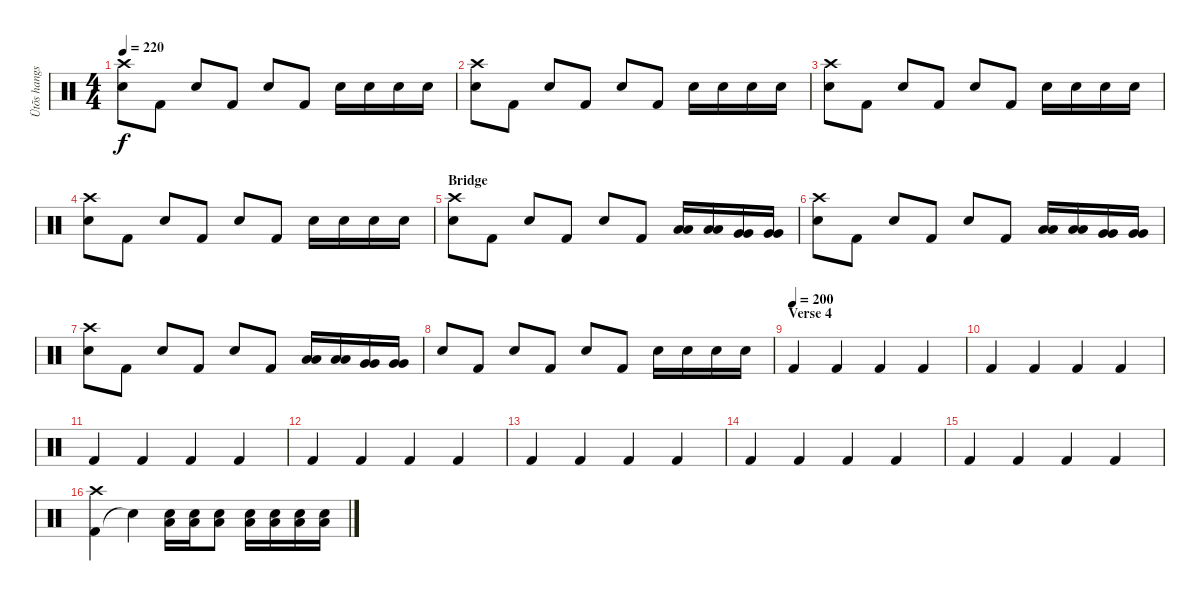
\track ("Ütõs hangszer" "Ütõs hangs") {instrument percussion}
\staff {score}
\articulation defaults
\ts (4 4)
\tempo 220
\clef neutral
\ks c
("Snare (hit) 2" "Crash high (hit)").8{dy f} "Kick (hit) 2".8 "Snare (hit) 2".8 "Kick (hit) 2".8 "Snare (hit) 2".8 "Kick (hit) 2".8 "Snare (hit) 2".16 "Snare (hit) 2".16 "Snare (hit) 2".16 "Snare (hit) 2".16 |
("Snare (hit) 2" "Crash high (hit)").8 "Kick (hit) 2".8 "Snare (hit) 2".8 "Kick (hit) 2".8 "Snare (hit) 2".8 "Kick (hit) 2".8 "Snare (hit) 2".16 "Snare (hit) 2".16 "Snare (hit) 2".16 "Snare (hit) 2".16 |
("Snare (hit) 2" "Crash high (hit)").8 "Kick (hit) 2".8 "Snare (hit) 2".8 "Kick (hit) 2".8 "Snare (hit) 2".8 "Kick (hit) 2".8 "Snare (hit) 2".16 "Snare (hit) 2".16 "Snare (hit) 2".16 "Snare (hit) 2".16 |
("Snare (hit) 2" "Crash high (hit)").8 "Kick (hit) 2".8 "Snare (hit) 2".8 "Kick (hit) 2".8 "Snare (hit) 2".8 "Kick (hit) 2".8 "Snare (hit) 2".16 "Snare (hit) 2".16 "Snare (hit) 2".16 "Snare (hit) 2".16 |
\section ("" "Bridge")
("Snare (hit) 2" "Crash high (hit)").8 "Kick (hit) 2".8 "Snare (hit) 2".8 "Kick (hit) 2".8 "Snare (hit) 2".8 "Kick (hit) 2".8 ("Low Floor Tom (hit)" "Low Floor Tom (hit)").16 ("Low Floor Tom (hit)" "Low Floor Tom (hit)").16 ("Very Low Tom (hit)" "Very Low Tom (hit)").16 ("Very Low Tom (hit)" "Very Low Tom (hit)").16 |
("Snare (hit) 2" "Crash high (hit)").8 "Kick (hit) 2".8 "Snare (hit) 2".8 "Kick (hit) 2".8 "Snare (hit) 2".8 "Kick (hit) 2".8 ("Low Floor Tom (hit)" "Low Floor Tom (hit)").16 ("Low Floor Tom (hit)" "Low Floor Tom (hit)").16 ("Very Low Tom (hit)" "Very Low Tom (hit)").16 ("Very Low Tom (hit)" "Very Low Tom (hit)").16 |
("Snare (hit) 2" "Crash high (hit)").8 "Kick (hit) 2".8 "Snare (hit) 2".8 "Kick (hit) 2".8 "Snare (hit) 2".8 "Kick (hit) 2".8 ("Low Floor Tom (hit)" "Low Floor Tom (hit)").16 ("Low Floor Tom (hit)" "Low Floor Tom (hit)").16 ("Very Low Tom (hit)" "Very Low Tom (hit)").16 ("Very Low Tom (hit)" "Very Low Tom (hit)").16 |
"Snare (hit) 2".8 "Kick (hit) 2".8 "Snare (hit) 2".8 "Kick (hit) 2".8 "Snare (hit) 2".8 "Kick (hit) 2".8 "Snare (hit) 2".16 "Snare (hit) 2".16 "Snare (hit) 2".16 "Snare (hit) 2".16 |
\section ("" "Verse 4")
\tempo (200)
"Kick (hit) 2".4 "Kick (hit) 2".4 "Kick (hit) 2".4 "Kick (hit) 2".4 |
"Kick (hit) 2".4 "Kick (hit) 2".4 "Kick (hit) 2".4 "Kick (hit) 2".4 |
"Kick (hit) 2".4 "Kick (hit) 2".4 "Kick (hit) 2".4 "Kick (hit) 2".4 |
"Kick (hit) 2".4 "Kick (hit) 2".4 "Kick (hit) 2".4 "Kick (hit) 2".4 |
"Kick (hit) 2".4 "Kick (hit) 2".4 "Kick (hit) 2".4 "Kick (hit) 2".4 |
"Kick (hit) 2".4 "Kick (hit) 2".4 "Kick (hit) 2".4 "Kick (hit) 2".4 |
"Kick (hit) 2".4 "Kick (hit) 2".4 "Kick (hit) 2".4 "Kick (hit) 2".4 |
("Kick (hit) 2" "Crash high (hit)").4 "Snare (hit)"{t}.4 ("Low Floor Tom (hit)" "Snare (hit) 2").16 ("Low Floor Tom (hit)" "Snare (hit) 2").16 ("Low Floor Tom (hit)" "Snare (hit) 2").8 ("Low Floor Tom (hit)" "Snare (hit) 2").16 ("Low Floor Tom (hit)" "Snare (hit) 2").16 ("Low Floor Tom (hit)" "Snare (hit) 2").16 ("Low Floor Tom (hit)" "Snare (hit) 2").16
